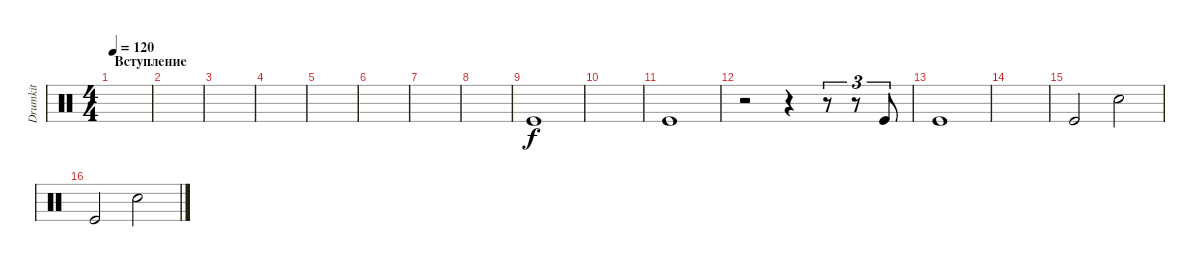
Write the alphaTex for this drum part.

\track ("Drumkit" "Drumkit") {instrument percussion}
\staff {score}
\articulation defaults
\ts (4 4)
\section ("" "Вступление")
\tempo 120
\clef neutral
\ks c
|
|
|
|
|
|
|
|
"Kick (hit)".1 |
|
"Kick (hit)".1 |
r.2 r.4 r.8{tu (3 2)} r.8{tu (3 2)} "Kick (hit)".8{tu (3 2)} |
"Kick (hit)".1 |
|
"Kick (hit)".2 "Snare (hit) 2".2 |
"Kick (hit)".2 "Snare (hit) 2".2
